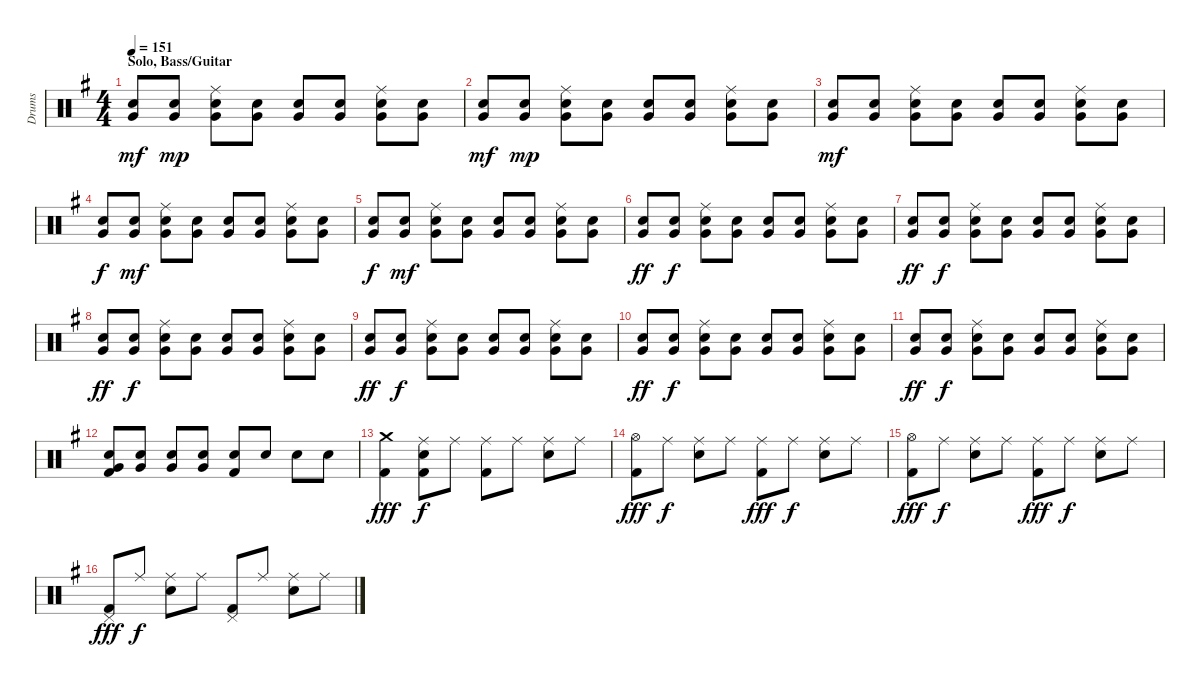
\track ("Drums " "Drums ") {instrument percussion}
\staff {score}
\articulation defaults
\ts (4 4)
\section ("" "Solo, Bass/Guitar")
\tempo 151
\clef neutral
\ks eminor
("Snare (hit) 2" "Very Low Tom (hit)").8{dy mf} ("Snare (hit) 2" "Very Low Tom (hit)").8{dy mp} ("Ride (middle)" "Snare (hit) 2" "Very Low Tom (hit)").8 ("Snare (hit) 2" "Very Low Tom (hit)").8 ("Snare (hit) 2" "Very Low Tom (hit)").8 ("Snare (hit) 2" "Very Low Tom (hit)").8 ("Ride (middle)" "Snare (hit) 2" "Very Low Tom (hit)").8 ("Snare (hit) 2" "Very Low Tom (hit)").8 |
("Snare (hit) 2" "Very Low Tom (hit)").8{dy mf} ("Snare (hit) 2" "Very Low Tom (hit)").8{dy mp} ("Ride (middle)" "Snare (hit) 2" "Very Low Tom (hit)").8 ("Snare (hit) 2" "Very Low Tom (hit)").8 ("Snare (hit) 2" "Very Low Tom (hit)").8 ("Snare (hit) 2" "Very Low Tom (hit)").8 ("Ride (middle)" "Snare (hit) 2" "Very Low Tom (hit)").8 ("Snare (hit) 2" "Very Low Tom (hit)").8 |
("Snare (hit) 2" "Very Low Tom (hit)").8{dy mf} ("Snare (hit) 2" "Very Low Tom (hit)").8 ("Ride (middle)" "Snare (hit) 2" "Very Low Tom (hit)").8 ("Snare (hit) 2" "Very Low Tom (hit)").8 ("Snare (hit) 2" "Very Low Tom (hit)").8 ("Snare (hit) 2" "Very Low Tom (hit)").8 ("Ride (middle)" "Snare (hit) 2" "Very Low Tom (hit)").8 ("Snare (hit) 2" "Very Low Tom (hit)").8 |
("Snare (hit) 2" "Very Low Tom (hit)").8{dy f} ("Snare (hit) 2" "Very Low Tom (hit)").8{dy mf} ("Ride (middle)" "Snare (hit) 2" "Very Low Tom (hit)").8 ("Snare (hit) 2" "Very Low Tom (hit)").8 ("Snare (hit) 2" "Very Low Tom (hit)").8 ("Snare (hit) 2" "Very Low Tom (hit)").8 ("Ride (middle)" "Snare (hit) 2" "Very Low Tom (hit)").8 ("Snare (hit) 2" "Very Low Tom (hit)").8 |
("Snare (hit) 2" "Very Low Tom (hit)").8{dy f} ("Snare (hit) 2" "Very Low Tom (hit)").8{dy mf} ("Ride (middle)" "Snare (hit) 2" "Very Low Tom (hit)").8 ("Snare (hit) 2" "Very Low Tom (hit)").8 ("Snare (hit) 2" "Very Low Tom (hit)").8 ("Snare (hit) 2" "Very Low Tom (hit)").8 ("Ride (middle)" "Snare (hit) 2" "Very Low Tom (hit)").8 ("Snare (hit) 2" "Very Low Tom (hit)").8 |
("Snare (hit) 2" "Very Low Tom (hit)").8{dy ff} ("Snare (hit) 2" "Very Low Tom (hit)").8{dy f} ("Ride (middle)" "Snare (hit) 2" "Very Low Tom (hit)").8 ("Snare (hit) 2" "Very Low Tom (hit)").8 ("Snare (hit) 2" "Very Low Tom (hit)").8 ("Snare (hit) 2" "Very Low Tom (hit)").8 ("Ride (middle)" "Snare (hit) 2" "Very Low Tom (hit)").8 ("Snare (hit) 2" "Very Low Tom (hit)").8 |
("Snare (hit) 2" "Very Low Tom (hit)").8{dy ff} ("Snare (hit) 2" "Very Low Tom (hit)").8{dy f} ("Ride (middle)" "Snare (hit) 2" "Very Low Tom (hit)").8 ("Snare (hit) 2" "Very Low Tom (hit)").8 ("Snare (hit) 2" "Very Low Tom (hit)").8 ("Snare (hit) 2" "Very Low Tom (hit)").8 ("Ride (middle)" "Snare (hit) 2" "Very Low Tom (hit)").8 ("Snare (hit) 2" "Very Low Tom (hit)").8 |
("Snare (hit) 2" "Very Low Tom (hit)").8{dy ff} ("Snare (hit) 2" "Very Low Tom (hit)").8{dy f} ("Ride (middle)" "Snare (hit) 2" "Very Low Tom (hit)").8 ("Snare (hit) 2" "Very Low Tom (hit)").8 ("Snare (hit) 2" "Very Low Tom (hit)").8 ("Snare (hit) 2" "Very Low Tom (hit)").8 ("Ride (middle)" "Snare (hit) 2" "Very Low Tom (hit)").8 ("Snare (hit) 2" "Very Low Tom (hit)").8 |
("Snare (hit) 2" "Very Low Tom (hit)").8{dy ff} ("Snare (hit) 2" "Very Low Tom (hit)").8{dy f} ("Ride (middle)" "Snare (hit) 2" "Very Low Tom (hit)").8 ("Snare (hit) 2" "Very Low Tom (hit)").8 ("Snare (hit) 2" "Very Low Tom (hit)").8 ("Snare (hit) 2" "Very Low Tom (hit)").8 ("Ride (middle)" "Snare (hit) 2" "Very Low Tom (hit)").8 ("Snare (hit) 2" "Very Low Tom (hit)").8 |
("Snare (hit) 2" "Very Low Tom (hit)").8{dy ff} ("Snare (hit) 2" "Very Low Tom (hit)").8{dy f} ("Ride (middle)" "Snare (hit) 2" "Very Low Tom (hit)").8 ("Snare (hit) 2" "Very Low Tom (hit)").8 ("Snare (hit) 2" "Very Low Tom (hit)").8 ("Snare (hit) 2" "Very Low Tom (hit)").8 ("Ride (middle)" "Snare (hit) 2" "Very Low Tom (hit)").8 ("Snare (hit) 2" "Very Low Tom (hit)").8 |
("Snare (hit) 2" "Very Low Tom (hit)").8{dy ff} ("Snare (hit) 2" "Very Low Tom (hit)").8{dy f} ("Ride (middle)" "Snare (hit) 2" "Very Low Tom (hit)").8 ("Snare (hit) 2" "Very Low Tom (hit)").8 ("Snare (hit) 2" "Very Low Tom (hit)").8 ("Snare (hit) 2" "Very Low Tom (hit)").8 ("Ride (middle)" "Snare (hit) 2" "Very Low Tom (hit)").8 ("Snare (hit) 2" "Very Low Tom (hit)").8 |
("Snare (hit) 2" "Kick (hit) 2" "Very Low Tom (hit)").8 ("Snare (hit) 2" "Very Low Tom (hit)").8 ("Snare (hit) 2" "Very Low Tom (hit)").8 ("Snare (hit) 2" "Very Low Tom (hit)").8 ("Snare (hit) 2" "Kick (hit) 2").8 "Snare (hit) 2".8 "Snare (hit) 2".8 "Snare (hit) 2".8 |
("Crash medium (hit)" "Kick (hit) 2").4{dy fff} ("Ride (middle)" "Snare (hit) 2" "Kick (hit) 2").8{dy f} "Ride (middle)".8 ("Ride (middle)" "Kick (hit) 2").8 "Ride (middle)".8 ("Ride (middle)" "Snare (hit) 2").8 "Ride (middle)".8 |
("Kick (hit) 2" "Hi-Hat (open)").8{dy fff} "Ride (middle)".8{dy f} ("Snare (hit) 2" "Ride (middle)").8 "Ride (middle)".8 ("Kick (hit) 2" "Ride (middle)").8{dy fff} "Ride (middle)".8{dy f} ("Snare (hit) 2" "Ride (middle)").8 "Ride (middle)".8 |
("Kick (hit) 2" "Hi-Hat (open)").8{dy fff} "Ride (middle)".8{dy f} ("Snare (hit) 2" "Ride (middle)").8 "Ride (middle)".8 ("Kick (hit) 2" "Ride (middle)").8{dy fff} "Ride (middle)".8{dy f} ("Snare (hit) 2" "Ride (middle)").8 "Ride (middle)".8 |
("Pedal Hi-Hat (hit)" "Kick (hit) 2").8{dy fff} "Ride (middle)".8{dy f} ("Snare (hit) 2" "Ride (middle)").8 "Ride (middle)".8 ("Pedal Hi-Hat (hit)" "Kick (hit) 2").8 "Ride (middle)".8 ("Snare (hit) 2" "Ride (middle)").8 "Ride (middle)".8
